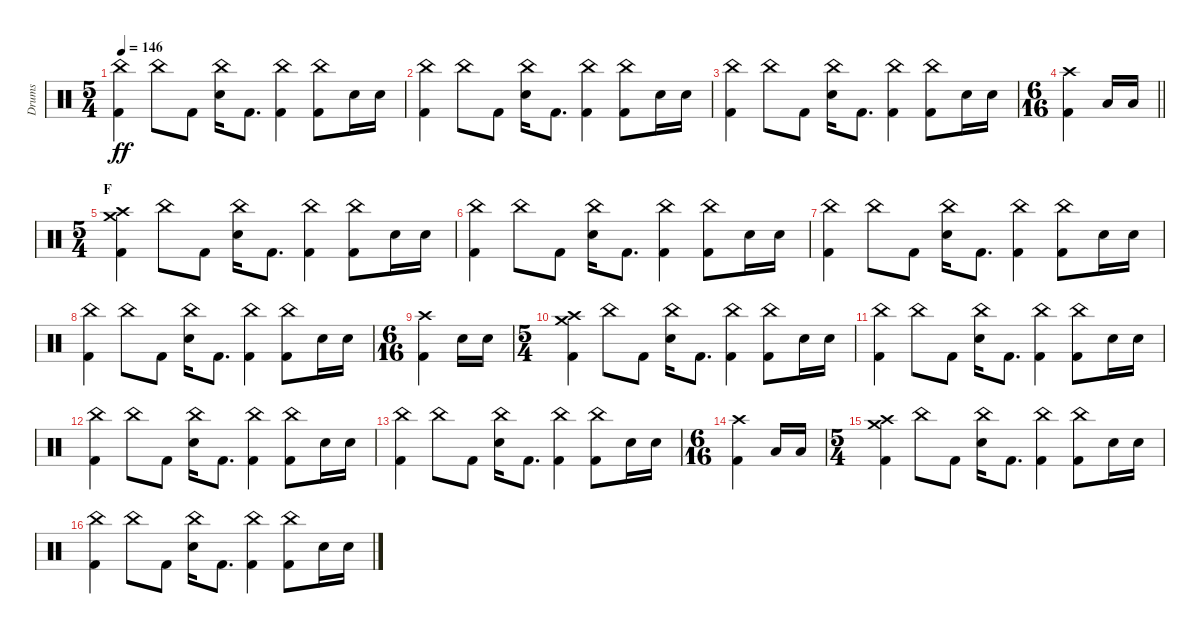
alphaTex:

\track ("Drums" "Drums") {instrument percussion}
\staff {score}
\articulation defaults
\ts (5 4)
\tempo 146
\clef neutral
\ks c
("China (hit)" "Kick (hit) 2").4{dy ff} "China (hit)".8 "Kick (hit) 2".8 ("China (hit)" "Electric Snare (hit)").16 "Kick (hit) 2".8{d} ("China (hit)" "Kick (hit) 2").4 ("China (hit)" "Kick (hit) 2").8 "Electric Snare (hit)".16 "Electric Snare (hit)".16 |
("China (hit)" "Kick (hit) 2").4 "China (hit)".8 "Kick (hit) 2".8 ("China (hit)" "Electric Snare (hit)").16 "Kick (hit) 2".8{d} ("China (hit)" "Kick (hit) 2").4 ("China (hit)" "Kick (hit) 2").8 "Electric Snare (hit)".16 "Electric Snare (hit)".16 |
("China (hit)" "Kick (hit) 2").4 "China (hit)".8 "Kick (hit) 2".8 ("China (hit)" "Electric Snare (hit)").16 "Kick (hit) 2".8{d} ("China (hit)" "Kick (hit) 2").4 ("China (hit)" "Kick (hit) 2").8 "Electric Snare (hit)".16 "Electric Snare (hit)".16 |
\ts (6 16)
\barLineRight lightlight
("Crash high (hit)" "Kick (hit) 2").4 "Low Tom (hit)".16 "Low Tom (hit)".16 |
\ts (5 4)
\section ("" "F")
("Crash medium (hit)" "Crash high (hit)" "Kick (hit) 2").4 "China (hit)".8 "Kick (hit) 2".8 ("China (hit)" "Electric Snare (hit)").16 "Kick (hit) 2".8{d} ("China (hit)" "Kick (hit) 2").4 ("China (hit)" "Kick (hit) 2").8 "Electric Snare (hit)".16 "Electric Snare (hit)".16 |
("China (hit)" "Kick (hit) 2").4 "China (hit)".8 "Kick (hit) 2".8 ("China (hit)" "Electric Snare (hit)").16 "Kick (hit) 2".8{d} ("China (hit)" "Kick (hit) 2").4 ("China (hit)" "Kick (hit) 2").8 "Electric Snare (hit)".16 "Electric Snare (hit)".16 |
("China (hit)" "Kick (hit) 2").4 "China (hit)".8 "Kick (hit) 2".8 ("China (hit)" "Electric Snare (hit)").16 "Kick (hit) 2".8{d} ("China (hit)" "Kick (hit) 2").4 ("China (hit)" "Kick (hit) 2").8 "Electric Snare (hit)".16 "Electric Snare (hit)".16 |
("China (hit)" "Kick (hit) 2").4 "China (hit)".8 "Kick (hit) 2".8 ("China (hit)" "Electric Snare (hit)").16 "Kick (hit) 2".8{d} ("China (hit)" "Kick (hit) 2").4 ("China (hit)" "Kick (hit) 2").8 "Electric Snare (hit)".16 "Electric Snare (hit)".16 |
\ts (6 16)
("Crash high (hit)" "Kick (hit) 2").4 "Electric Snare (hit)".16 "Electric Snare (hit)".16 |
\ts (5 4)
("Crash medium (hit)" "Crash high (hit)" "Kick (hit) 2").4 "China (hit)".8 "Kick (hit) 2".8 ("China (hit)" "Electric Snare (hit)").16 "Kick (hit) 2".8{d} ("China (hit)" "Kick (hit) 2").4 ("China (hit)" "Kick (hit) 2").8 "Electric Snare (hit)".16 "Electric Snare (hit)".16 |
("China (hit)" "Kick (hit) 2").4 "China (hit)".8 "Kick (hit) 2".8 ("China (hit)" "Electric Snare (hit)").16 "Kick (hit) 2".8{d} ("China (hit)" "Kick (hit) 2").4 ("China (hit)" "Kick (hit) 2").8 "Electric Snare (hit)".16 "Electric Snare (hit)".16 |
("China (hit)" "Kick (hit) 2").4 "China (hit)".8 "Kick (hit) 2".8 ("China (hit)" "Electric Snare (hit)").16 "Kick (hit) 2".8{d} ("China (hit)" "Kick (hit) 2").4 ("China (hit)" "Kick (hit) 2").8 "Electric Snare (hit)".16 "Electric Snare (hit)".16 |
("China (hit)" "Kick (hit) 2").4 "China (hit)".8 "Kick (hit) 2".8 ("China (hit)" "Electric Snare (hit)").16 "Kick (hit) 2".8{d} ("China (hit)" "Kick (hit) 2").4 ("China (hit)" "Kick (hit) 2").8 "Electric Snare (hit)".16 "Electric Snare (hit)".16 |
\ts (6 16)
("Crash high (hit)" "Kick (hit) 2").4 "Low Tom (hit)".16 "Low Tom (hit)".16 |
\ts (5 4)
("Crash medium (hit)" "Crash high (hit)" "Kick (hit) 2").4 "China (hit)".8 "Kick (hit) 2".8 ("China (hit)" "Electric Snare (hit)").16 "Kick (hit) 2".8{d} ("China (hit)" "Kick (hit) 2").4 ("China (hit)" "Kick (hit) 2").8 "Electric Snare (hit)".16 "Electric Snare (hit)".16 |
("China (hit)" "Kick (hit) 2").4 "China (hit)".8 "Kick (hit) 2".8 ("China (hit)" "Electric Snare (hit)").16 "Kick (hit) 2".8{d} ("China (hit)" "Kick (hit) 2").4 ("China (hit)" "Kick (hit) 2").8 "Electric Snare (hit)".16 "Electric Snare (hit)".16
